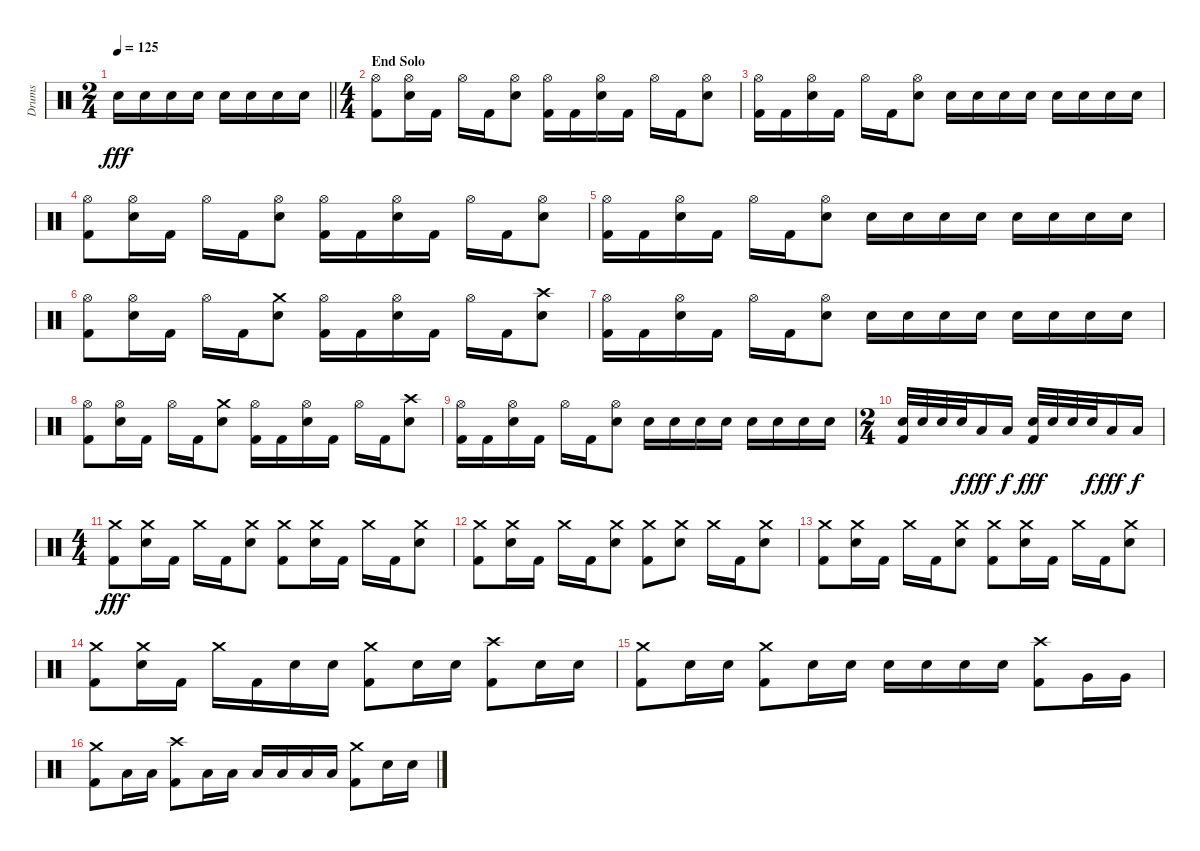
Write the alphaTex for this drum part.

\track ("Drums" "Drums") {instrument percussion}
\staff {score}
\articulation defaults
\ts (2 4)
\tempo 125
\clef neutral
\barLineRight lightlight
\ks c "Electric Snare (hit)".16{dy fff} "Electric Snare (hit)".16 "Electric Snare (hit)".16 "Electric Snare (hit)".16 "Electric Snare (hit)".16 "Electric Snare (hit)".16 "Electric Snare (hit)".16 "Electric Snare (hit)".16
|
\ts (4 4)
\section ("" "End Solo")
("Hi-Hat (open)" "Kick (hit) 2").8 ("Hi-Hat (open)" "Electric Snare (hit)").16 "Kick (hit) 2".16 "Hi-Hat (open)".16 "Kick (hit) 2".16 ("Hi-Hat (open)" "Electric Snare (hit)").8 ("Hi-Hat (open)" "Kick (hit) 2").16 "Kick (hit) 2".16 ("Hi-Hat (open)" "Electric Snare (hit)").16 "Kick (hit) 2".16 "Hi-Hat (open)".16 "Kick (hit) 2".16 ("Hi-Hat (open)" "Electric Snare (hit)").8 |
("Hi-Hat (open)" "Kick (hit) 2").16 "Kick (hit) 2".16 ("Hi-Hat (open)" "Electric Snare (hit)").16 "Kick (hit) 2".16 "Hi-Hat (open)".16 "Kick (hit) 2".16 ("Hi-Hat (open)" "Electric Snare (hit)").8 "Electric Snare (hit)".16 "Electric Snare (hit)".16 "Electric Snare (hit)".16 "Electric Snare (hit)".16 "Electric Snare (hit)".16 "Electric Snare (hit)".16 "Electric Snare (hit)".16 "Electric Snare (hit)".16 |
("Hi-Hat (open)" "Kick (hit) 2").8 ("Hi-Hat (open)" "Electric Snare (hit)").16 "Kick (hit) 2".16 "Hi-Hat (open)".16 "Kick (hit) 2".16 ("Hi-Hat (open)" "Electric Snare (hit)").8 ("Hi-Hat (open)" "Kick (hit) 2").16 "Kick (hit) 2".16 ("Hi-Hat (open)" "Electric Snare (hit)").16 "Kick (hit) 2".16 "Hi-Hat (open)".16 "Kick (hit) 2".16 ("Hi-Hat (open)" "Electric Snare (hit)").8 |
("Hi-Hat (open)" "Kick (hit) 2").16 "Kick (hit) 2".16 ("Hi-Hat (open)" "Electric Snare (hit)").16 "Kick (hit) 2".16 "Hi-Hat (open)".16 "Kick (hit) 2".16 ("Hi-Hat (open)" "Electric Snare (hit)").8 "Electric Snare (hit)".16 "Electric Snare (hit)".16 "Electric Snare (hit)".16 "Electric Snare (hit)".16 "Electric Snare (hit)".16 "Electric Snare (hit)".16 "Electric Snare (hit)".16 "Electric Snare (hit)".16 |
("Hi-Hat (open)" "Kick (hit) 2").8 ("Hi-Hat (open)" "Electric Snare (hit)").16 "Kick (hit) 2".16 "Hi-Hat (open)".16 "Kick (hit) 2".16 ("Crash medium (hit)" "Electric Snare (hit)").8 ("Hi-Hat (open)" "Kick (hit) 2").16 "Kick (hit) 2".16 ("Hi-Hat (open)" "Electric Snare (hit)").16 "Kick (hit) 2".16 "Hi-Hat (open)".16 "Kick (hit) 2".16 ("Crash high (hit)" "Electric Snare (hit)").8 |
("Hi-Hat (open)" "Kick (hit) 2").16 "Kick (hit) 2".16 ("Hi-Hat (open)" "Electric Snare (hit)").16 "Kick (hit) 2".16 "Hi-Hat (open)".16 "Kick (hit) 2".16 ("Hi-Hat (open)" "Electric Snare (hit)").8 "Electric Snare (hit)".16 "Electric Snare (hit)".16 "Electric Snare (hit)".16 "Electric Snare (hit)".16 "Electric Snare (hit)".16 "Electric Snare (hit)".16 "Electric Snare (hit)".16 "Electric Snare (hit)".16 |
("Hi-Hat (open)" "Kick (hit) 2").8 ("Hi-Hat (open)" "Electric Snare (hit)").16 "Kick (hit) 2".16 "Hi-Hat (open)".16 "Kick (hit) 2".16 ("Crash medium (hit)" "Electric Snare (hit)").8 ("Hi-Hat (open)" "Kick (hit) 2").16 "Kick (hit) 2".16 ("Hi-Hat (open)" "Electric Snare (hit)").16 "Kick (hit) 2".16 "Hi-Hat (open)".16 "Kick (hit) 2".16 ("Crash high (hit)" "Electric Snare (hit)").8 |
("Hi-Hat (open)" "Kick (hit) 2").16 "Kick (hit) 2".16 ("Hi-Hat (open)" "Electric Snare (hit)").16 "Kick (hit) 2".16 "Hi-Hat (open)".16 "Kick (hit) 2".16 ("Hi-Hat (open)" "Electric Snare (hit)").8 "Electric Snare (hit)".16 "Electric Snare (hit)".16 "Electric Snare (hit)".16 "Electric Snare (hit)".16 "Electric Snare (hit)".16 "Electric Snare (hit)".16 "Electric Snare (hit)".16 "Electric Snare (hit)".16 |
\ts (2 4)
("Electric Snare (hit)" "Kick (hit) 2").32 "Electric Snare (hit)".32 "Electric Snare (hit)".32 "Electric Snare (hit)".32{dy f} "Low Tom (hit)".16{dy fff} "Low Tom (hit)".16{dy f} ("Electric Snare (hit)" "Kick (hit) 2").32{dy fff} "Electric Snare (hit)".32 "Electric Snare (hit)".32 "Electric Snare (hit)".32{dy f} "Low Tom (hit)".16{dy fff} "Low Tom (hit)".16{dy f} |
\ts (4 4)
("Crash medium (hit)" "Kick (hit) 2").8{dy fff} ("Crash medium (hit)" "Electric Snare (hit)").16 "Kick (hit) 2".16 "Crash medium (hit)".16 "Kick (hit) 2".16 ("Crash medium (hit)" "Electric Snare (hit)").8 ("Crash medium (hit)" "Kick (hit) 2").8 ("Crash medium (hit)" "Electric Snare (hit)").16 "Kick (hit) 2".16 "Crash medium (hit)".16 "Kick (hit) 2".16 ("Crash medium (hit)" "Electric Snare (hit)").8 |
("Crash medium (hit)" "Kick (hit) 2").8 ("Crash medium (hit)" "Electric Snare (hit)").16 "Kick (hit) 2".16 "Crash medium (hit)".16 "Kick (hit) 2".16 ("Crash medium (hit)" "Electric Snare (hit)").8 ("Crash medium (hit)" "Kick (hit) 2").8 ("Crash medium (hit)" "Electric Snare (hit)").8 "Crash medium (hit)".16 "Kick (hit) 2".16 ("Crash medium (hit)" "Electric Snare (hit)").8 |
("Crash medium (hit)" "Kick (hit) 2").8 ("Crash medium (hit)" "Electric Snare (hit)").16 "Kick (hit) 2".16 "Crash medium (hit)".16 "Kick (hit) 2".16 ("Crash medium (hit)" "Electric Snare (hit)").8 ("Crash medium (hit)" "Kick (hit) 2").8 ("Crash medium (hit)" "Electric Snare (hit)").16 "Kick (hit) 2".16 "Crash medium (hit)".16 "Kick (hit) 2".16 ("Crash medium (hit)" "Electric Snare (hit)").8 |
("Crash medium (hit)" "Kick (hit) 2").8 ("Crash medium (hit)" "Electric Snare (hit)").16 "Kick (hit) 2".16 "Crash medium (hit)".16 "Kick (hit) 2".16 "Electric Snare (hit)".16 "Electric Snare (hit)".16 ("Crash medium (hit)" "Kick (hit) 2").8 "Electric Snare (hit)".16 "Electric Snare (hit)".16 ("Crash high (hit)" "Kick (hit) 2").8 "Electric Snare (hit)".16 "Electric Snare (hit)".16 |
("Crash medium (hit)" "Kick (hit) 2").8 "Electric Snare (hit)".16 "Electric Snare (hit)".16 ("Crash medium (hit)" "Kick (hit) 2").8 "Electric Snare (hit)".16 "Electric Snare (hit)".16 "Electric Snare (hit)".16 "Electric Snare (hit)".16 "Electric Snare (hit)".16 "Electric Snare (hit)".16 ("Crash high (hit)" "Kick (hit) 2").8 "Very Low Tom (hit)".16 "Very Low Tom (hit)".16 |
("Crash medium (hit)" "Kick (hit) 2").8 "Low Tom (hit)".16 "Low Tom (hit)".16 ("Crash high (hit)" "Kick (hit) 2").8 "Low Tom (hit)".16 "Low Tom (hit)".16 "Low Tom (hit)".16 "Low Tom (hit)".16 "Low Tom (hit)".16 "Low Tom (hit)".16 ("Crash medium (hit)" "Kick (hit) 2").8 "Electric Snare (hit)".16 "Electric Snare (hit)".16
